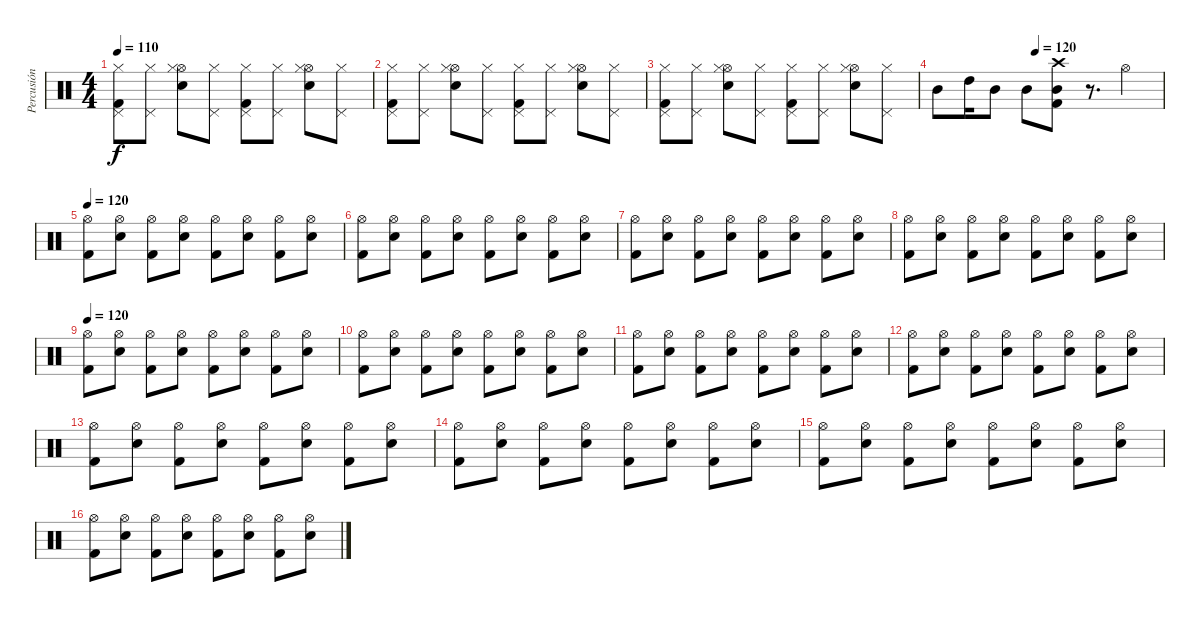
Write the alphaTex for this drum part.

\track ("Percusión" "Percusión") {instrument percussion}
\staff {score}
\articulation defaults
\ts (4 4)
\tempo 110
\clef neutral
\ks c
("Pedal Hi-Hat (hit)" "Hi-Hat (closed)" "Kick (hit) 2").8{dy f} ("Pedal Hi-Hat (hit)" "Hi-Hat (closed)").8 ("Hi-Hat (open)" "Hi-Hat (closed)" "Electric Snare (hit)").8 ("Pedal Hi-Hat (hit)" "Hi-Hat (closed)").8 ("Pedal Hi-Hat (hit)" "Hi-Hat (closed)" "Kick (hit) 2").8 ("Pedal Hi-Hat (hit)" "Hi-Hat (closed)").8 ("Hi-Hat (open)" "Hi-Hat (closed)" "Electric Snare (hit)").8 ("Pedal Hi-Hat (hit)" "Hi-Hat (closed)").8 |
("Pedal Hi-Hat (hit)" "Hi-Hat (closed)" "Kick (hit) 2").8 ("Pedal Hi-Hat (hit)" "Hi-Hat (closed)").8 ("Hi-Hat (open)" "Hi-Hat (closed)" "Electric Snare (hit)").8 ("Pedal Hi-Hat (hit)" "Hi-Hat (closed)").8 ("Pedal Hi-Hat (hit)" "Hi-Hat (closed)" "Kick (hit) 2").8 ("Pedal Hi-Hat (hit)" "Hi-Hat (closed)").8 ("Hi-Hat (open)" "Hi-Hat (closed)" "Electric Snare (hit)").8 ("Pedal Hi-Hat (hit)" "Hi-Hat (closed)").8 |
("Pedal Hi-Hat (hit)" "Hi-Hat (closed)" "Kick (hit) 2").8 ("Pedal Hi-Hat (hit)" "Hi-Hat (closed)").8 ("Hi-Hat (open)" "Hi-Hat (closed)" "Electric Snare (hit)").8 ("Pedal Hi-Hat (hit)" "Hi-Hat (closed)").8 ("Pedal Hi-Hat (hit)" "Hi-Hat (closed)" "Kick (hit) 2").8 ("Pedal Hi-Hat (hit)" "Hi-Hat (closed)").8 ("Hi-Hat (open)" "Hi-Hat (closed)" "Electric Snare (hit)").8 ("Pedal Hi-Hat (hit)" "Hi-Hat (closed)").8 |
\tempo (120 0.4375)
"Mid Tom (hit)".8 "High Tom (hit)".16 "Mid Tom (hit)".8 "Mid Tom (hit)".8 ("Crash high (hit)" "Mid Tom (hit)" "Kick (hit) 2").8 r.8{d} "Hi-Hat (open)".4 |
\tempo 120
("Hi-Hat (open)" "Kick (hit) 2").8 ("Hi-Hat (open)" "Electric Snare (hit)").8 ("Hi-Hat (open)" "Kick (hit) 2").8 ("Hi-Hat (open)" "Electric Snare (hit)").8 ("Hi-Hat (open)" "Kick (hit) 2").8 ("Hi-Hat (open)" "Electric Snare (hit)").8 ("Hi-Hat (open)" "Kick (hit) 2").8 ("Hi-Hat (open)" "Electric Snare (hit)").8 |
("Hi-Hat (open)" "Kick (hit) 2").8 ("Hi-Hat (open)" "Electric Snare (hit)").8 ("Hi-Hat (open)" "Kick (hit) 2").8 ("Hi-Hat (open)" "Electric Snare (hit)").8 ("Hi-Hat (open)" "Kick (hit) 2").8 ("Hi-Hat (open)" "Electric Snare (hit)").8 ("Hi-Hat (open)" "Kick (hit) 2").8 ("Hi-Hat (open)" "Electric Snare (hit)").8 |
("Hi-Hat (open)" "Kick (hit) 2").8 ("Hi-Hat (open)" "Electric Snare (hit)").8 ("Hi-Hat (open)" "Kick (hit) 2").8 ("Hi-Hat (open)" "Electric Snare (hit)").8 ("Hi-Hat (open)" "Kick (hit) 2").8 ("Hi-Hat (open)" "Electric Snare (hit)").8 ("Hi-Hat (open)" "Kick (hit) 2").8 ("Hi-Hat (open)" "Electric Snare (hit)").8 |
("Hi-Hat (open)" "Kick (hit) 2").8 ("Hi-Hat (open)" "Electric Snare (hit)").8 ("Hi-Hat (open)" "Kick (hit) 2").8 ("Hi-Hat (open)" "Electric Snare (hit)").8 ("Hi-Hat (open)" "Kick (hit) 2").8 ("Hi-Hat (open)" "Electric Snare (hit)").8 ("Hi-Hat (open)" "Kick (hit) 2").8 ("Hi-Hat (open)" "Electric Snare (hit)").8 |
\tempo 120
("Hi-Hat (open)" "Kick (hit) 2").8 ("Hi-Hat (open)" "Electric Snare (hit)").8 ("Hi-Hat (open)" "Kick (hit) 2").8 ("Hi-Hat (open)" "Electric Snare (hit)").8 ("Hi-Hat (open)" "Kick (hit) 2").8 ("Hi-Hat (open)" "Electric Snare (hit)").8 ("Hi-Hat (open)" "Kick (hit) 2").8 ("Hi-Hat (open)" "Electric Snare (hit)").8 |
("Hi-Hat (open)" "Kick (hit) 2").8 ("Hi-Hat (open)" "Electric Snare (hit)").8 ("Hi-Hat (open)" "Kick (hit) 2").8 ("Hi-Hat (open)" "Electric Snare (hit)").8 ("Hi-Hat (open)" "Kick (hit) 2").8 ("Hi-Hat (open)" "Electric Snare (hit)").8 ("Hi-Hat (open)" "Kick (hit) 2").8 ("Hi-Hat (open)" "Electric Snare (hit)").8 |
("Hi-Hat (open)" "Kick (hit) 2").8 ("Hi-Hat (open)" "Electric Snare (hit)").8 ("Hi-Hat (open)" "Kick (hit) 2").8 ("Hi-Hat (open)" "Electric Snare (hit)").8 ("Hi-Hat (open)" "Kick (hit) 2").8 ("Hi-Hat (open)" "Electric Snare (hit)").8 ("Hi-Hat (open)" "Kick (hit) 2").8 ("Hi-Hat (open)" "Electric Snare (hit)").8 |
("Hi-Hat (open)" "Kick (hit) 2").8 ("Hi-Hat (open)" "Electric Snare (hit)").8 ("Hi-Hat (open)" "Kick (hit) 2").8 ("Hi-Hat (open)" "Electric Snare (hit)").8 ("Hi-Hat (open)" "Kick (hit) 2").8 ("Hi-Hat (open)" "Electric Snare (hit)").8 ("Hi-Hat (open)" "Kick (hit) 2").8 ("Hi-Hat (open)" "Electric Snare (hit)").8 |
("Hi-Hat (open)" "Kick (hit) 2").8 ("Hi-Hat (open)" "Electric Snare (hit)").8 ("Hi-Hat (open)" "Kick (hit) 2").8 ("Hi-Hat (open)" "Electric Snare (hit)").8 ("Hi-Hat (open)" "Kick (hit) 2").8 ("Hi-Hat (open)" "Electric Snare (hit)").8 ("Hi-Hat (open)" "Kick (hit) 2").8 ("Hi-Hat (open)" "Electric Snare (hit)").8 |
("Hi-Hat (open)" "Kick (hit) 2").8 ("Hi-Hat (open)" "Electric Snare (hit)").8 ("Hi-Hat (open)" "Kick (hit) 2").8 ("Hi-Hat (open)" "Electric Snare (hit)").8 ("Hi-Hat (open)" "Kick (hit) 2").8 ("Hi-Hat (open)" "Electric Snare (hit)").8 ("Hi-Hat (open)" "Kick (hit) 2").8 ("Hi-Hat (open)" "Electric Snare (hit)").8 |
("Hi-Hat (open)" "Kick (hit) 2").8 ("Hi-Hat (open)" "Electric Snare (hit)").8 ("Hi-Hat (open)" "Kick (hit) 2").8 ("Hi-Hat (open)" "Electric Snare (hit)").8 ("Hi-Hat (open)" "Kick (hit) 2").8 ("Hi-Hat (open)" "Electric Snare (hit)").8 ("Hi-Hat (open)" "Kick (hit) 2").8 ("Hi-Hat (open)" "Electric Snare (hit)").8 |
("Hi-Hat (open)" "Kick (hit) 2").8 ("Hi-Hat (open)" "Electric Snare (hit)").8 ("Hi-Hat (open)" "Kick (hit) 2").8 ("Hi-Hat (open)" "Electric Snare (hit)").8 ("Hi-Hat (open)" "Kick (hit) 2").8 ("Hi-Hat (open)" "Electric Snare (hit)").8 ("Hi-Hat (open)" "Kick (hit) 2").8 ("Hi-Hat (open)" "Electric Snare (hit)").8
